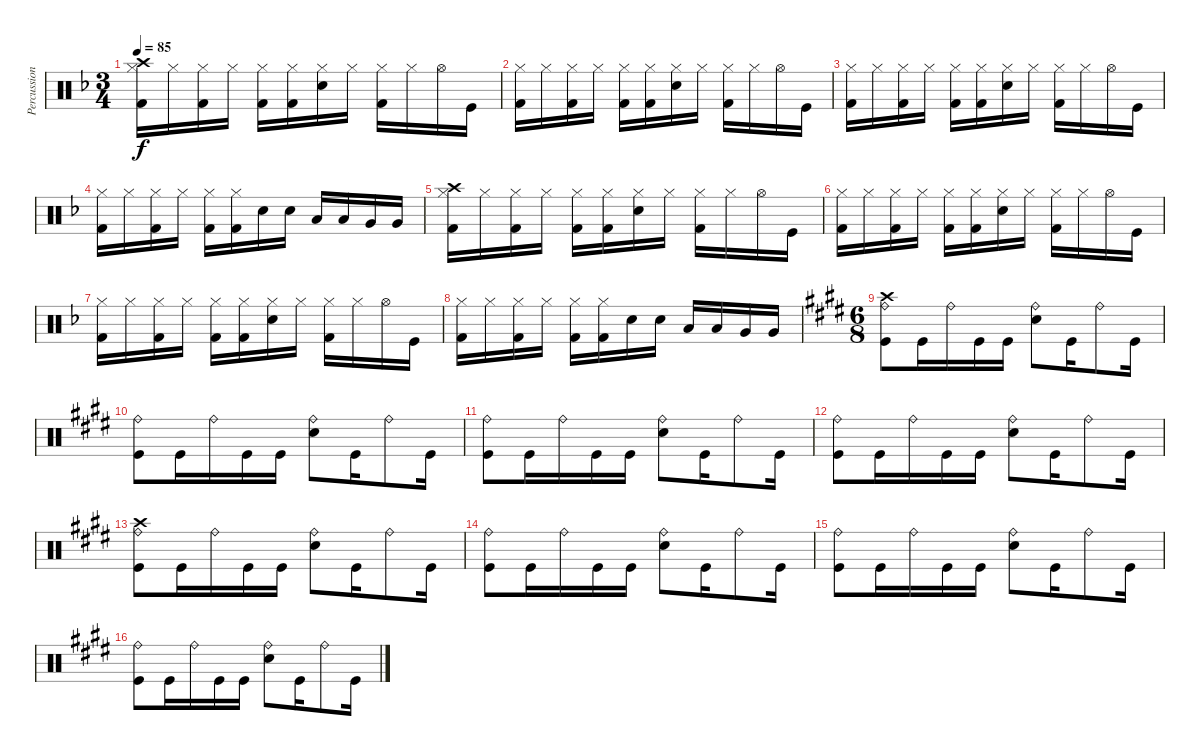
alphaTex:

\track ("Percussion" "Percussion") {instrument percussion}
\staff {score}
\articulation defaults
\ts (3 4)
\tempo 85
\clef neutral
\ks f
("Hi-Hat (closed)" "Kick (hit) 2" "Crash high (hit)").16{dy f} "Hi-Hat (closed)".16 ("Hi-Hat (closed)" "Kick (hit) 2").16 "Hi-Hat (closed)".16 ("Hi-Hat (closed)" "Kick (hit) 2").16 ("Hi-Hat (closed)" "Kick (hit) 2").16 ("Hi-Hat (closed)" "Snare (hit) 2").16 "Hi-Hat (closed)".16 ("Hi-Hat (closed)" "Kick (hit) 2").16 "Hi-Hat (closed)".16 "Hi-Hat (open)".16 "Kick (hit)".16 |
("Hi-Hat (closed)" "Kick (hit) 2").16 "Hi-Hat (closed)".16 ("Hi-Hat (closed)" "Kick (hit) 2").16 "Hi-Hat (closed)".16 ("Hi-Hat (closed)" "Kick (hit) 2").16 ("Hi-Hat (closed)" "Kick (hit) 2").16 ("Hi-Hat (closed)" "Snare (hit) 2").16 "Hi-Hat (closed)".16 ("Hi-Hat (closed)" "Kick (hit) 2").16 "Hi-Hat (closed)".16 "Hi-Hat (open)".16 "Kick (hit)".16 |
("Hi-Hat (closed)" "Kick (hit) 2").16 "Hi-Hat (closed)".16 ("Hi-Hat (closed)" "Kick (hit) 2").16 "Hi-Hat (closed)".16 ("Hi-Hat (closed)" "Kick (hit) 2").16 ("Hi-Hat (closed)" "Kick (hit) 2").16 ("Hi-Hat (closed)" "Snare (hit) 2").16 "Hi-Hat (closed)".16 ("Hi-Hat (closed)" "Kick (hit) 2").16 "Hi-Hat (closed)".16 "Hi-Hat (open)".16 "Kick (hit)".16 |
("Hi-Hat (closed)" "Kick (hit) 2").16 "Hi-Hat (closed)".16 ("Hi-Hat (closed)" "Kick (hit) 2").16 "Hi-Hat (closed)".16 ("Hi-Hat (closed)" "Kick (hit) 2").16 ("Hi-Hat (closed)" "Kick (hit) 2").16 "Snare (hit) 2".16 "Snare (hit) 2".16 "Low Tom (hit)".16 "Low Tom (hit)".16 "Very Low Tom (hit)".16 "Very Low Tom (hit)".16 |
("Hi-Hat (closed)" "Kick (hit) 2" "Crash high (hit)").16 "Hi-Hat (closed)".16 ("Hi-Hat (closed)" "Kick (hit) 2").16 "Hi-Hat (closed)".16 ("Hi-Hat (closed)" "Kick (hit) 2").16 ("Hi-Hat (closed)" "Kick (hit) 2").16 ("Hi-Hat (closed)" "Snare (hit) 2").16 "Hi-Hat (closed)".16 ("Hi-Hat (closed)" "Kick (hit) 2").16 "Hi-Hat (closed)".16 "Hi-Hat (open)".16 "Kick (hit)".16 |
("Hi-Hat (closed)" "Kick (hit) 2").16 "Hi-Hat (closed)".16 ("Hi-Hat (closed)" "Kick (hit) 2").16 "Hi-Hat (closed)".16 ("Hi-Hat (closed)" "Kick (hit) 2").16 ("Hi-Hat (closed)" "Kick (hit) 2").16 ("Hi-Hat (closed)" "Snare (hit) 2").16 "Hi-Hat (closed)".16 ("Hi-Hat (closed)" "Kick (hit) 2").16 "Hi-Hat (closed)".16 "Hi-Hat (open)".16 "Kick (hit)".16 |
("Hi-Hat (closed)" "Kick (hit) 2").16 "Hi-Hat (closed)".16 ("Hi-Hat (closed)" "Kick (hit) 2").16 "Hi-Hat (closed)".16 ("Hi-Hat (closed)" "Kick (hit) 2").16 ("Hi-Hat (closed)" "Kick (hit) 2").16 ("Hi-Hat (closed)" "Snare (hit) 2").16 "Hi-Hat (closed)".16 ("Hi-Hat (closed)" "Kick (hit) 2").16 "Hi-Hat (closed)".16 "Hi-Hat (open)".16 "Kick (hit)".16 |
("Hi-Hat (closed)" "Kick (hit) 2").16 "Hi-Hat (closed)".16 ("Hi-Hat (closed)" "Kick (hit) 2").16 "Hi-Hat (closed)".16 ("Hi-Hat (closed)" "Kick (hit) 2").16 ("Hi-Hat (closed)" "Kick (hit) 2").16 "Snare (hit) 2".16 "Snare (hit) 2".16 "Low Tom (hit)".16 "Low Tom (hit)".16 "Very Low Tom (hit)".16 "Very Low Tom (hit)".16 |
\ts (6 8)
\ks e
("Kick (hit)" "Ride (bell)" "Crash high (hit)").8 "Kick (hit)".16 "Ride (bell)".16 "Kick (hit)".16 "Kick (hit)".16 ("Ride (bell)" "Snare (hit) 2").8 "Kick (hit)".16 "Ride (bell)".8 "Kick (hit)".16 |
\ks c#minor
("Kick (hit)" "Ride (bell)").8 "Kick (hit)".16 "Ride (bell)".16 "Kick (hit)".16 "Kick (hit)".16 ("Ride (bell)" "Snare (hit) 2").8 "Kick (hit)".16 "Ride (bell)".8 "Kick (hit)".16 |
("Kick (hit)" "Ride (bell)").8 "Kick (hit)".16 "Ride (bell)".16 "Kick (hit)".16 "Kick (hit)".16 ("Ride (bell)" "Snare (hit) 2").8 "Kick (hit)".16 "Ride (bell)".8 "Kick (hit)".16 |
\ks e
("Kick (hit)" "Ride (bell)").8 "Kick (hit)".16 "Ride (bell)".16 "Kick (hit)".16 "Kick (hit)".16 ("Ride (bell)" "Snare (hit) 2").8 "Kick (hit)".16 "Ride (bell)".8 "Kick (hit)".16 |
("Kick (hit)" "Ride (bell)" "Crash high (hit)").8 "Kick (hit)".16 "Ride (bell)".16 "Kick (hit)".16 "Kick (hit)".16 ("Ride (bell)" "Snare (hit) 2").8 "Kick (hit)".16 "Ride (bell)".8 "Kick (hit)".16 |
\ks c#minor
("Kick (hit)" "Ride (bell)").8 "Kick (hit)".16 "Ride (bell)".16 "Kick (hit)".16 "Kick (hit)".16 ("Ride (bell)" "Snare (hit) 2").8 "Kick (hit)".16 "Ride (bell)".8 "Kick (hit)".16 |
("Kick (hit)" "Ride (bell)").8 "Kick (hit)".16 "Ride (bell)".16 "Kick (hit)".16 "Kick (hit)".16 ("Ride (bell)" "Snare (hit) 2").8 "Kick (hit)".16 "Ride (bell)".8 "Kick (hit)".16 |
\ks e
("Kick (hit)" "Ride (bell)").8 "Kick (hit)".16 "Ride (bell)".16 "Kick (hit)".16 "Kick (hit)".16 ("Ride (bell)" "Snare (hit) 2").8 "Kick (hit)".16 "Ride (bell)".8 "Kick (hit)".16
